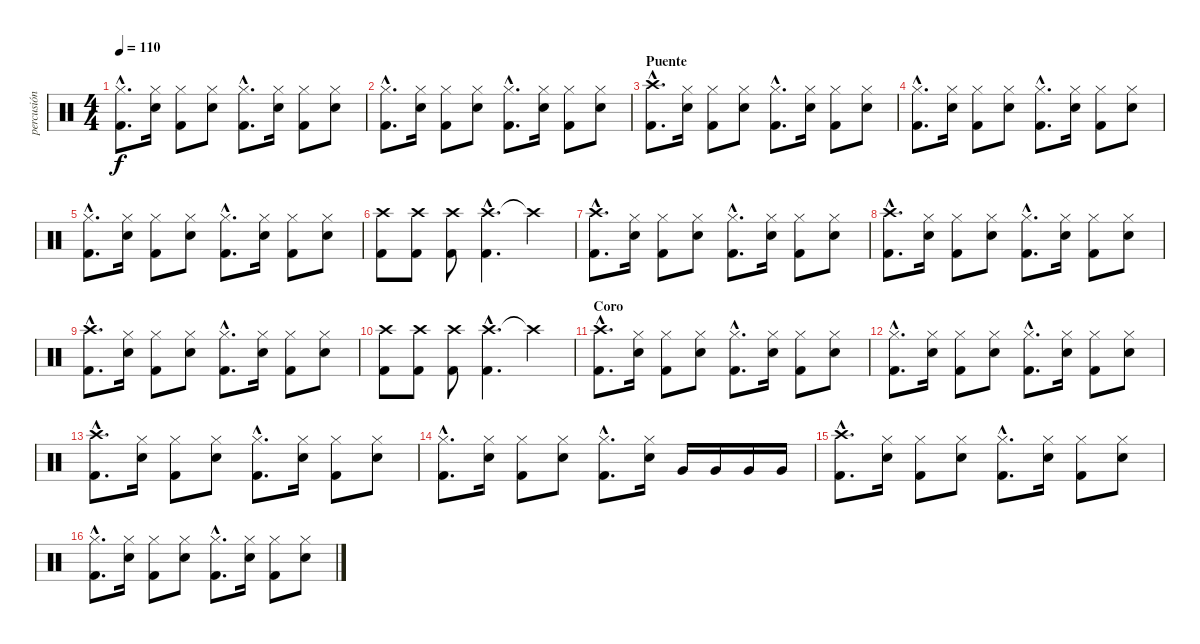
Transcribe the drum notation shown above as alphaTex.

\track ("percusión" "percusión") {instrument percussion}
\staff {score}
\articulation defaults
\ts (4 4)
\tempo 110
\clef neutral
\ks c
("Kick (hit) 2"{hac} "Hi-Hat (closed)"{hac}).8{d dy f} ("Snare (hit) 2" "Hi-Hat (closed)").16 ("Kick (hit) 2" "Hi-Hat (closed)").8 ("Snare (hit) 2" "Hi-Hat (closed)").8 ("Kick (hit) 2"{hac} "Hi-Hat (closed)"{hac}).8{d} ("Snare (hit) 2" "Hi-Hat (closed)").16 ("Kick (hit) 2" "Hi-Hat (closed)").8 ("Snare (hit) 2" "Hi-Hat (closed)").8 |
("Kick (hit) 2"{hac} "Hi-Hat (closed)"{hac}).8{d} ("Snare (hit) 2" "Hi-Hat (closed)").16 ("Kick (hit) 2" "Hi-Hat (closed)").8 ("Snare (hit) 2" "Hi-Hat (closed)").8 ("Kick (hit) 2"{hac} "Hi-Hat (closed)"{hac}).8{d} ("Snare (hit) 2" "Hi-Hat (closed)").16 ("Kick (hit) 2" "Hi-Hat (closed)").8 ("Snare (hit) 2" "Hi-Hat (closed)").8 |
\section ("" "Puente")
("Kick (hit) 2"{hac} "Crash high (hit)"{hac}).8{d} ("Snare (hit) 2" "Hi-Hat (closed)").16 ("Kick (hit) 2" "Hi-Hat (closed)").8 ("Snare (hit) 2" "Hi-Hat (closed)").8 ("Kick (hit) 2"{hac} "Hi-Hat (closed)"{hac}).8{d} ("Snare (hit) 2" "Hi-Hat (closed)").16 ("Kick (hit) 2" "Hi-Hat (closed)").8 ("Snare (hit) 2" "Hi-Hat (closed)").8 |
("Kick (hit) 2"{hac} "Hi-Hat (closed)"{hac}).8{d} ("Snare (hit) 2" "Hi-Hat (closed)").16 ("Kick (hit) 2" "Hi-Hat (closed)").8 ("Snare (hit) 2" "Hi-Hat (closed)").8 ("Kick (hit) 2"{hac} "Hi-Hat (closed)"{hac}).8{d} ("Snare (hit) 2" "Hi-Hat (closed)").16 ("Kick (hit) 2" "Hi-Hat (closed)").8 ("Snare (hit) 2" "Hi-Hat (closed)").8 |
("Kick (hit) 2"{hac} "Hi-Hat (closed)"{hac}).8{d} ("Snare (hit) 2" "Hi-Hat (closed)").16 ("Kick (hit) 2" "Hi-Hat (closed)").8 ("Snare (hit) 2" "Hi-Hat (closed)").8 ("Kick (hit) 2"{hac} "Hi-Hat (closed)"{hac}).8{d} ("Snare (hit) 2" "Hi-Hat (closed)").16 ("Kick (hit) 2" "Hi-Hat (closed)").8 ("Snare (hit) 2" "Hi-Hat (closed)").8 |
("Crash high (hit)" "Kick (hit) 2").8 ("Crash high (hit)" "Kick (hit) 2").8 ("Crash high (hit)" "Kick (hit) 2").8 ("Crash high (hit)"{hac} "Kick (hit) 2"{hac}).4{d} "Crash high (hit)"{t}.4 |
("Kick (hit) 2"{hac} "Crash high (hit)"{hac}).8{d} ("Snare (hit) 2" "Hi-Hat (closed)").16 ("Kick (hit) 2" "Hi-Hat (closed)").8 ("Snare (hit) 2" "Hi-Hat (closed)").8 ("Kick (hit) 2"{hac} "Hi-Hat (closed)"{hac}).8{d} ("Snare (hit) 2" "Hi-Hat (closed)").16 ("Kick (hit) 2" "Hi-Hat (closed)").8 ("Snare (hit) 2" "Hi-Hat (closed)").8 |
("Kick (hit) 2"{hac} "Crash high (hit)"{hac}).8{d} ("Snare (hit) 2" "Hi-Hat (closed)").16 ("Kick (hit) 2" "Hi-Hat (closed)").8 ("Snare (hit) 2" "Hi-Hat (closed)").8 ("Kick (hit) 2"{hac} "Hi-Hat (closed)"{hac}).8{d} ("Snare (hit) 2" "Hi-Hat (closed)").16 ("Kick (hit) 2" "Hi-Hat (closed)").8 ("Snare (hit) 2" "Hi-Hat (closed)").8 |
("Kick (hit) 2"{hac} "Crash high (hit)"{hac}).8{d} ("Snare (hit) 2" "Hi-Hat (closed)").16 ("Kick (hit) 2" "Hi-Hat (closed)").8 ("Snare (hit) 2" "Hi-Hat (closed)").8 ("Kick (hit) 2"{hac} "Hi-Hat (closed)"{hac}).8{d} ("Snare (hit) 2" "Hi-Hat (closed)").16 ("Kick (hit) 2" "Hi-Hat (closed)").8 ("Snare (hit) 2" "Hi-Hat (closed)").8 |
("Crash high (hit)" "Kick (hit) 2").8 ("Crash high (hit)" "Kick (hit) 2").8 ("Crash high (hit)" "Kick (hit) 2").8 ("Crash high (hit)"{hac} "Kick (hit) 2"{hac}).4{d} "Crash high (hit)"{t}.4 |
\section ("" "Coro")
("Kick (hit) 2"{hac} "Crash high (hit)"{hac}).8{d} ("Snare (hit) 2" "Hi-Hat (closed)").16 ("Kick (hit) 2" "Hi-Hat (closed)").8 ("Snare (hit) 2" "Hi-Hat (closed)").8 ("Kick (hit) 2"{hac} "Hi-Hat (closed)"{hac}).8{d} ("Snare (hit) 2" "Hi-Hat (closed)").16 ("Kick (hit) 2" "Hi-Hat (closed)").8 ("Snare (hit) 2" "Hi-Hat (closed)").8 |
("Kick (hit) 2"{hac} "Hi-Hat (closed)"{hac}).8{d} ("Snare (hit) 2" "Hi-Hat (closed)").16 ("Kick (hit) 2" "Hi-Hat (closed)").8 ("Snare (hit) 2" "Hi-Hat (closed)").8 ("Kick (hit) 2"{hac} "Hi-Hat (closed)"{hac}).8{d} ("Snare (hit) 2" "Hi-Hat (closed)").16 ("Kick (hit) 2" "Hi-Hat (closed)").8 ("Snare (hit) 2" "Hi-Hat (closed)").8 |
("Kick (hit) 2"{hac} "Crash high (hit)"{hac}).8{d} ("Snare (hit) 2" "Hi-Hat (closed)").16 ("Kick (hit) 2" "Hi-Hat (closed)").8 ("Snare (hit) 2" "Hi-Hat (closed)").8 ("Kick (hit) 2"{hac} "Hi-Hat (closed)"{hac}).8{d} ("Snare (hit) 2" "Hi-Hat (closed)").16 ("Kick (hit) 2" "Hi-Hat (closed)").8 ("Snare (hit) 2" "Hi-Hat (closed)").8 |
("Kick (hit) 2"{hac} "Hi-Hat (closed)"{hac}).8{d} ("Snare (hit) 2" "Hi-Hat (closed)").16 ("Kick (hit) 2" "Hi-Hat (closed)").8 ("Snare (hit) 2" "Hi-Hat (closed)").8 ("Kick (hit) 2"{hac} "Hi-Hat (closed)"{hac}).8{d} ("Snare (hit) 2" "Hi-Hat (closed)").16 "Very Low Tom (hit)".16 "Very Low Tom (hit)".16 "Very Low Tom (hit)".16 "Very Low Tom (hit)".16 |
("Kick (hit) 2"{hac} "Crash high (hit)"{hac}).8{d} ("Snare (hit) 2" "Hi-Hat (closed)").16 ("Kick (hit) 2" "Hi-Hat (closed)").8 ("Snare (hit) 2" "Hi-Hat (closed)").8 ("Kick (hit) 2"{hac} "Hi-Hat (closed)"{hac}).8{d} ("Snare (hit) 2" "Hi-Hat (closed)").16 ("Kick (hit) 2" "Hi-Hat (closed)").8 ("Snare (hit) 2" "Hi-Hat (closed)").8 |
("Kick (hit) 2"{hac} "Hi-Hat (closed)"{hac}).8{d} ("Snare (hit) 2" "Hi-Hat (closed)").16 ("Kick (hit) 2" "Hi-Hat (closed)").8 ("Snare (hit) 2" "Hi-Hat (closed)").8 ("Kick (hit) 2"{hac} "Hi-Hat (closed)"{hac}).8{d} ("Snare (hit) 2" "Hi-Hat (closed)").16 ("Kick (hit) 2" "Hi-Hat (closed)").8 ("Snare (hit) 2" "Hi-Hat (closed)").8
